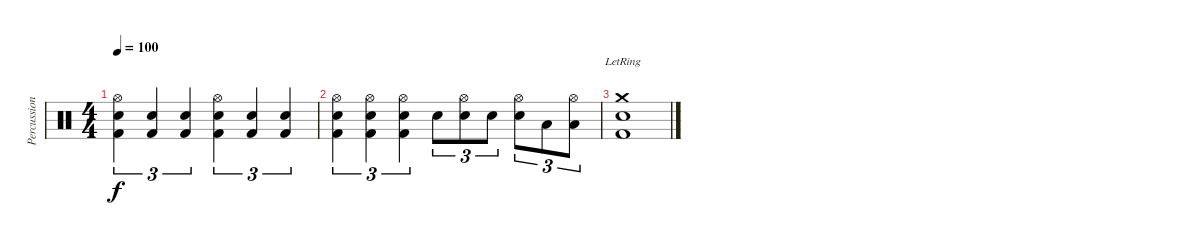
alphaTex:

\track ("Percussion" "Percussion") {instrument percussion}
\staff {score}
\articulation defaults
\ts (4 4)
\tempo 100
\clef neutral
\ks c
("Hi-Hat (open)" "Snare (hit) 2" "Kick (hit) 2").4{tu (3 2) dy f} ("Electric Snare (hit)" "Kick (hit) 2").4{tu (3 2)} ("Electric Snare (hit)" "Kick (hit) 2").4{tu (3 2)} ("Hi-Hat (open)" "Snare (hit) 2" "Kick (hit) 2").4{tu (3 2)} ("Electric Snare (hit)" "Kick (hit) 2").4{tu (3 2)} ("Electric Snare (hit)" "Kick (hit) 2").4{tu (3 2)} |
("Hi-Hat (open)" "Snare (hit) 2" "Kick (hit) 2").4{tu (3 2) volume 5} ("Hi-Hat (open)" "Snare (hit) 2" "Kick (hit) 2").4{tu (3 2)} ("Hi-Hat (open)" "Snare (hit) 2" "Kick (hit) 2").4{tu (3 2)} "Electric Snare (hit)".8{tu (3 2)} ("Hi-Hat (open)" "Electric Snare (hit)").8{tu (3 2)} "Snare (hit) 2".8{tu (3 2)} ("Hi-Hat (open)" "Snare (hit) 2").8{tu (3 2)} "Low Floor Tom (hit)".8{tu (3 2)} ("Hi-Hat (open)" "Low Floor Tom (hit)").8{tu (3 2)} |
("Crash medium (hit)"{lr} "Snare (hit) 2" "Kick (hit) 2").1
